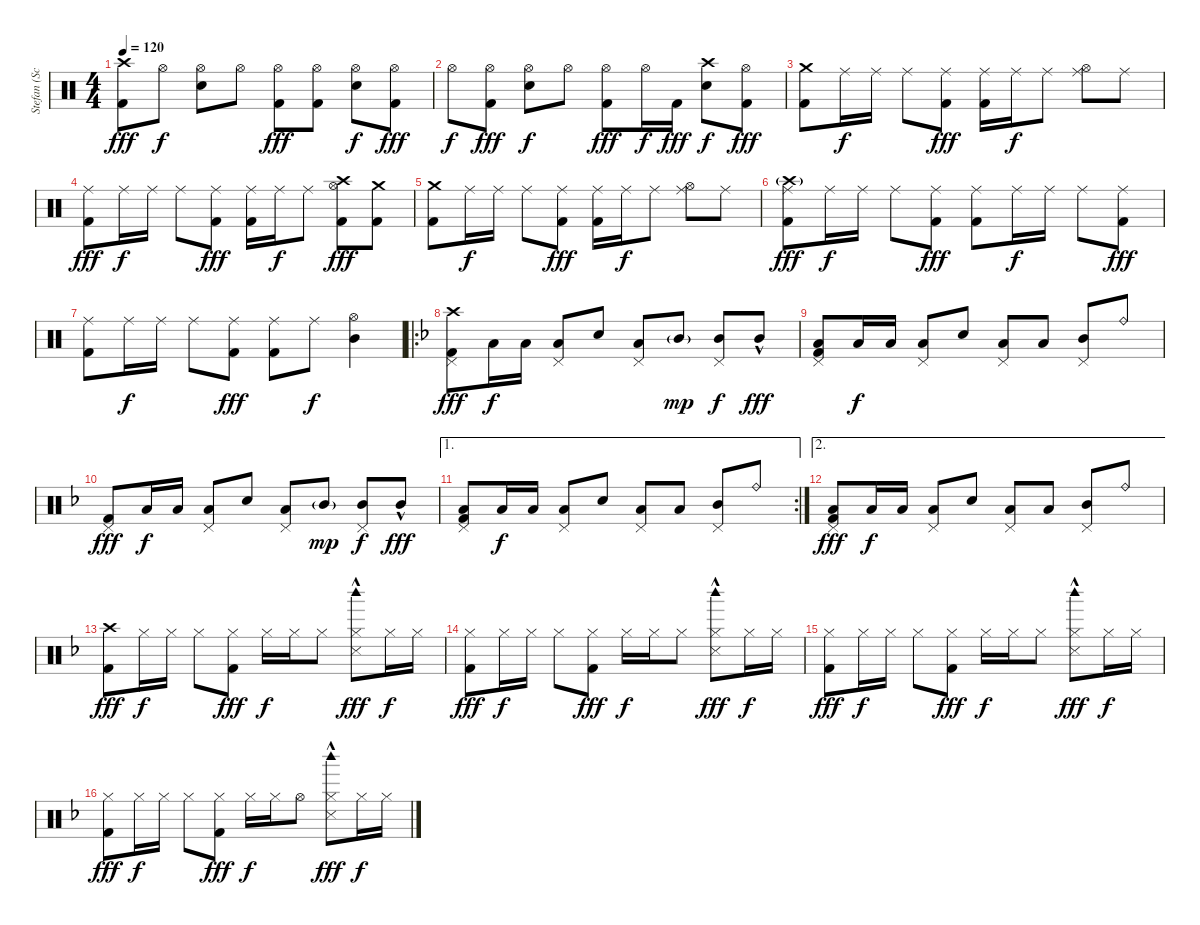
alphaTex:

\track ("Stefan (Schlagzeug)" "Stefan (Sc") {instrument percussion}
\staff {score}
\articulation defaults
\ts (4 4)
\tempo 120
\clef neutral
\ks c
("Crash high (hit)" "Kick (hit) 2").8{dy fff} "Hi-Hat (open)".8{dy f} ("Hi-Hat (open)" "Snare (hit) 2").8 "Hi-Hat (open)".8 ("Hi-Hat (open)" "Kick (hit) 2").8{dy fff} ("Hi-Hat (open)" "Kick (hit) 2").8 ("Hi-Hat (open)" "Snare (hit) 2").8{dy f} ("Hi-Hat (open)" "Kick (hit) 2").8{dy fff} |
"Hi-Hat (open)".8{dy f} ("Hi-Hat (open)" "Kick (hit) 2").8{dy fff} ("Hi-Hat (open)" "Snare (hit) 2").8{dy f} "Hi-Hat (open)".8 ("Hi-Hat (open)" "Kick (hit) 2").8{dy fff} "Hi-Hat (open)".16{dy f} "Kick (hit) 2".16{dy fff} ("Crash high (hit)" "Snare (hit) 2").8{dy f} ("Hi-Hat (open)" "Kick (hit) 2").8{dy fff} |
("Crash medium (hit)" "Kick (hit) 2").8 "Ride (middle)".16{dy f} "Ride (middle)".16 "Ride (middle)".8 ("Ride (middle)" "Kick (hit) 2").8{dy fff} ("Ride (middle)" "Kick (hit) 2").16 "Ride (middle)".16{dy f} "Ride (middle)".8 ("Ride (middle)" "Hi-Hat (open)").8 "Ride (middle)".8 |
("Ride (middle)" "Kick (hit) 2").8{dy fff} "Ride (middle)".16{dy f} "Ride (middle)".16 "Ride (middle)".8 ("Ride (middle)" "Kick (hit) 2").8{dy fff} ("Ride (middle)" "Kick (hit) 2").16 "Ride (middle)".16{dy f} "Ride (middle)".8 ("Crash high (hit)" "Hi-Hat (open)" "Kick (hit) 2").8{dy fff} ("Crash medium (hit)" "Kick (hit) 2").8 |
("Crash medium (hit)" "Kick (hit) 2").8 "Ride (middle)".16{dy f} "Ride (middle)".16 "Ride (middle)".8 ("Ride (middle)" "Kick (hit) 2").8{dy fff} ("Ride (middle)" "Kick (hit) 2").16 "Ride (middle)".16{dy f} "Ride (middle)".8 ("Ride (middle)" "Hi-Hat (open)").8 "Ride (middle)".8 |
("Ride (middle)" "Crash high (hit)"{g} "Kick (hit) 2").8{dy fff} "Ride (middle)".16{dy f} "Ride (middle)".16 "Ride (middle)".8 ("Ride (middle)" "Kick (hit) 2").8{dy fff} ("Ride (middle)" "Kick (hit) 2").8 "Ride (middle)".16{dy f} "Ride (middle)".16 "Ride (middle)".8 ("Ride (middle)" "Kick (hit) 2").8{dy fff} |
("Ride (middle)" "Kick (hit) 2").8 "Ride (middle)".16{dy f} "Ride (middle)".16 "Ride (middle)".8 ("Ride (middle)" "Kick (hit) 2").8{dy fff} ("Ride (middle)" "Kick (hit) 2").8 "Ride (middle)".8{dy f} ("Hi-Hat (open)" "Mid Tom (hit)").4 |
\ro
\ks f
("Crash high (hit)" "Kick (hit) 2" "Pedal Hi-Hat (hit)").8{dy fff} "Low Tom (hit)".16{dy f} "Low Tom (hit)".16 ("Low Tom (hit)" "Pedal Hi-Hat (hit)").8 "Snare (hit) 2".8 ("Low Tom (hit)" "Pedal Hi-Hat (hit)").8 "Mid Tom (hit)"{g}.8{dy mp} ("Mid Tom (hit)" "Pedal Hi-Hat (hit)").8{dy f} "Mid Tom (hit)"{hac}.8{dy fff} |
("Low Tom (hit)" "Kick (hit) 2" "Pedal Hi-Hat (hit)").8 "Low Tom (hit)".16{dy f} "Low Tom (hit)".16 ("Low Tom (hit)" "Pedal Hi-Hat (hit)").8 "Snare (hit) 2".8 ("Low Tom (hit)" "Pedal Hi-Hat (hit)").8 "Low Tom (hit)".8 ("Mid Tom (hit)" "Pedal Hi-Hat (hit)").8 "Ride (bell)".8 |
("Kick (hit) 2" "Pedal Hi-Hat (hit)").8{dy fff} "Low Tom (hit)".16{dy f} "Low Tom (hit)".16 ("Low Tom (hit)" "Pedal Hi-Hat (hit)").8 "Snare (hit) 2".8 ("Low Tom (hit)" "Pedal Hi-Hat (hit)").8 "Mid Tom (hit)"{g}.8{dy mp} ("Mid Tom (hit)" "Pedal Hi-Hat (hit)").8{dy f} "Mid Tom (hit)"{hac}.8{dy fff} |
\ae 1
\rc 2
("Low Tom (hit)" "Kick (hit) 2" "Pedal Hi-Hat (hit)").8 "Low Tom (hit)".16{dy f} "Low Tom (hit)".16 ("Low Tom (hit)" "Pedal Hi-Hat (hit)").8 "Snare (hit) 2".8 ("Low Tom (hit)" "Pedal Hi-Hat (hit)").8 "Low Tom (hit)".8 ("Mid Tom (hit)" "Pedal Hi-Hat (hit)").8 "Ride (bell)".8 |
\ae 2
("Low Tom (hit)" "Kick (hit) 2" "Pedal Hi-Hat (hit)").8{dy fff} "Low Tom (hit)".16{dy f} "Low Tom (hit)".16 ("Low Tom (hit)" "Pedal Hi-Hat (hit)").8 "Snare (hit) 2".8 ("Low Tom (hit)" "Pedal Hi-Hat (hit)").8 "Low Tom (hit)".8 ("Mid Tom (hit)" "Pedal Hi-Hat (hit)").8 "Ride (bell)".8 |
("Crash high (hit)" "Kick (hit) 2").8{dy fff} "Hi-Hat (closed)".16{dy f} "Hi-Hat (closed)".16 "Hi-Hat (closed)".8 ("Hi-Hat (closed)" "Kick (hit) 2").8{dy fff} "Hi-Hat (closed)".16{dy f} "Hi-Hat (closed)".16 "Hi-Hat (closed)".8 ("Hi-Hat (closed)" "Woodblock high (hit)"{hac} "Snare (side stick) 3").8{dy fff} "Hi-Hat (closed)".16{dy f} "Hi-Hat (closed)".16 |
("Hi-Hat (closed)" "Kick (hit) 2").8{dy fff} "Hi-Hat (closed)".16{dy f} "Hi-Hat (closed)".16 "Hi-Hat (closed)".8 ("Hi-Hat (closed)" "Kick (hit) 2").8{dy fff} "Hi-Hat (closed)".16{dy f} "Hi-Hat (closed)".16 "Hi-Hat (closed)".8 ("Hi-Hat (closed)" "Woodblock high (hit)"{hac} "Snare (side stick) 3").8{dy fff} "Hi-Hat (closed)".16{dy f} "Hi-Hat (closed)".16 |
("Hi-Hat (closed)" "Kick (hit) 2").8{dy fff} "Hi-Hat (closed)".16{dy f} "Hi-Hat (closed)".16 "Hi-Hat (closed)".8 ("Hi-Hat (closed)" "Kick (hit) 2").8{dy fff} "Hi-Hat (closed)".16{dy f} "Hi-Hat (closed)".16 "Hi-Hat (closed)".8 ("Hi-Hat (closed)" "Woodblock high (hit)"{hac} "Snare (side stick) 3").8{dy fff} "Hi-Hat (closed)".16{dy f} "Hi-Hat (closed)".16 |
("Hi-Hat (closed)" "Kick (hit) 2").8{dy fff} "Hi-Hat (closed)".16{dy f} "Hi-Hat (closed)".16 "Hi-Hat (closed)".8 ("Hi-Hat (closed)" "Kick (hit) 2").8{dy fff} "Hi-Hat (closed)".16{dy f} "Hi-Hat (closed)".16 "Hi-Hat (open)".8 ("Hi-Hat (closed)" "Woodblock high (hit)"{hac} "Snare (side stick) 3").8{dy fff} "Hi-Hat (closed)".16{dy f} "Hi-Hat (closed)".16
